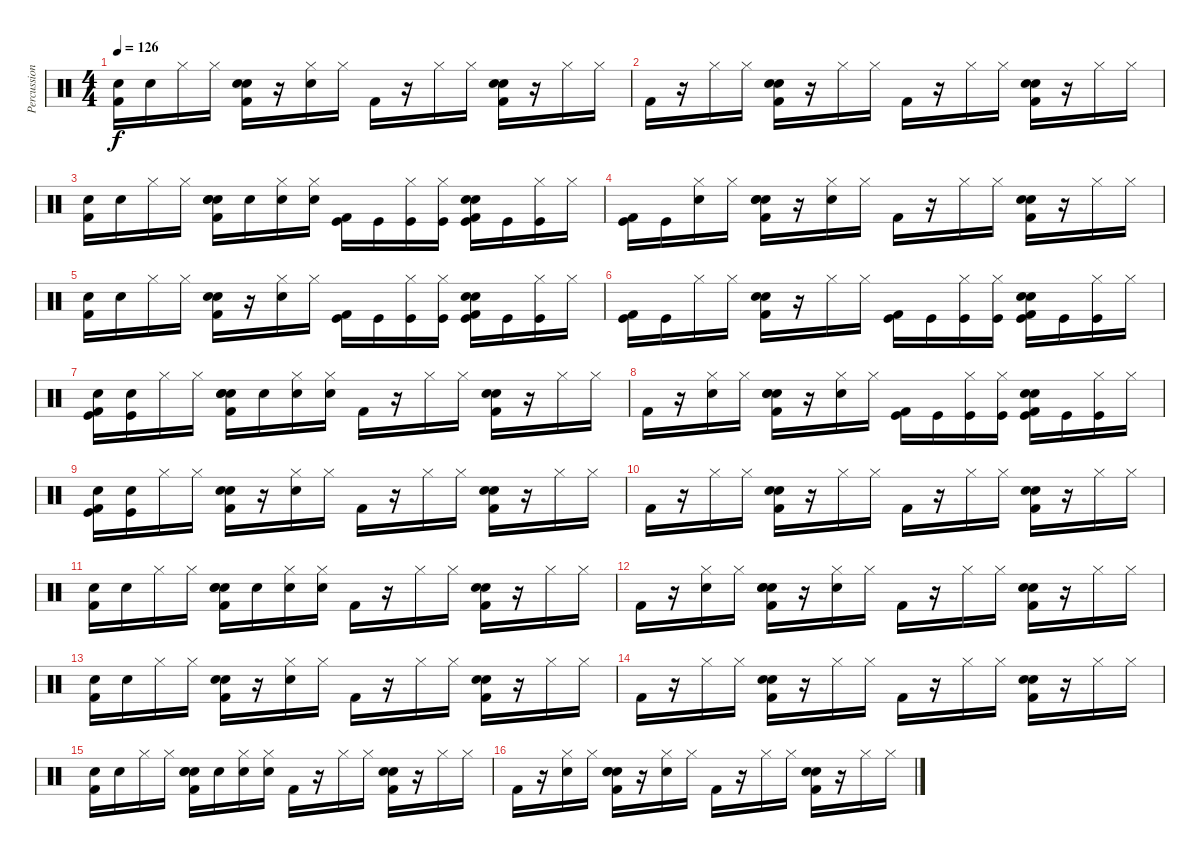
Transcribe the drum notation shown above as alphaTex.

\track ("Percussion" "Percussion") {instrument percussion}
\staff {score}
\articulation defaults
\ts (4 4)
\tempo 126
\clef neutral
\ks c
("Snare (hit) 2" "Kick (hit) 2").16{dy f} "Snare (hit) 2".16 "Hi-Hat (closed)".16 "Hi-Hat (closed)".16 ("Hand Clap (hit)" "Electric Snare (hit)" "Kick (hit) 2").16 r.16 ("Hi-Hat (closed)" "Snare (hit) 2").16 "Hi-Hat (closed)".16 "Kick (hit) 2".16 r.16 "Hi-Hat (closed)".16 "Hi-Hat (closed)".16 ("Hand Clap (hit)" "Electric Snare (hit)" "Kick (hit) 2").16 r.16 "Hi-Hat (closed)".16 "Hi-Hat (closed)".16 |
"Kick (hit) 2".16 r.16 "Hi-Hat (closed)".16 "Hi-Hat (closed)".16 ("Hand Clap (hit)" "Electric Snare (hit)" "Kick (hit) 2").16 r.16 "Hi-Hat (closed)".16 "Hi-Hat (closed)".16 "Kick (hit) 2".16 r.16 "Hi-Hat (closed)".16 "Hi-Hat (closed)".16 ("Hand Clap (hit)" "Electric Snare (hit)" "Kick (hit) 2").16 r.16 "Hi-Hat (closed)".16 "Hi-Hat (closed)".16 |
("Snare (hit) 2" "Kick (hit) 2").16 "Snare (hit) 2".16 "Hi-Hat (closed)".16 "Hi-Hat (closed)".16 ("Snare (hit) 2" "Hand Clap (hit)" "Electric Snare (hit)" "Kick (hit) 2").16 "Snare (hit) 2".16 ("Hi-Hat (closed)" "Snare (hit) 2").16 ("Hi-Hat (closed)" "Snare (hit) 2").16 ("Kick (hit)" "Kick (hit) 2").16 "Kick (hit)".16 ("Hi-Hat (closed)" "Kick (hit)").16 ("Hi-Hat (closed)" "Kick (hit)").16 ("Kick (hit)" "Hand Clap (hit)" "Electric Snare (hit)" "Kick (hit) 2").16 "Kick (hit)".16 ("Hi-Hat (closed)" "Kick (hit)").16 "Hi-Hat (closed)".16 |
("Kick (hit)" "Kick (hit) 2").16 "Kick (hit)".16 ("Hi-Hat (closed)" "Snare (hit) 2").16 "Hi-Hat (closed)".16 ("Snare (hit) 2" "Hand Clap (hit)" "Electric Snare (hit)" "Kick (hit) 2").16 r.16 ("Hi-Hat (closed)" "Snare (hit) 2").16 "Hi-Hat (closed)".16 "Kick (hit) 2".16 r.16 "Hi-Hat (closed)".16 "Hi-Hat (closed)".16 ("Hand Clap (hit)" "Electric Snare (hit)" "Kick (hit) 2").16 r.16 "Hi-Hat (closed)".16 "Hi-Hat (closed)".16 |
("Snare (hit) 2" "Kick (hit) 2").16 "Snare (hit) 2".16 "Hi-Hat (closed)".16 "Hi-Hat (closed)".16 ("Hand Clap (hit)" "Electric Snare (hit)" "Kick (hit) 2").16 r.16 ("Hi-Hat (closed)" "Snare (hit) 2").16 "Hi-Hat (closed)".16 ("Kick (hit)" "Kick (hit) 2").16 "Kick (hit)".16 ("Hi-Hat (closed)" "Kick (hit)").16 ("Hi-Hat (closed)" "Kick (hit)").16 ("Kick (hit)" "Hand Clap (hit)" "Electric Snare (hit)" "Kick (hit) 2").16 "Kick (hit)".16 ("Hi-Hat (closed)" "Kick (hit)").16 "Hi-Hat (closed)".16 |
("Kick (hit)" "Kick (hit) 2").16 "Kick (hit)".16 "Hi-Hat (closed)".16 "Hi-Hat (closed)".16 ("Hand Clap (hit)" "Electric Snare (hit)" "Kick (hit) 2").16 r.16 "Hi-Hat (closed)".16 "Hi-Hat (closed)".16 ("Kick (hit)" "Kick (hit) 2").16 "Kick (hit)".16 ("Hi-Hat (closed)" "Kick (hit)").16 ("Hi-Hat (closed)" "Kick (hit)").16 ("Kick (hit)" "Hand Clap (hit)" "Electric Snare (hit)" "Kick (hit) 2").16 "Kick (hit)".16 ("Hi-Hat (closed)" "Kick (hit)").16 "Hi-Hat (closed)".16 |
("Kick (hit)" "Snare (hit) 2" "Kick (hit) 2").16 ("Kick (hit)" "Snare (hit) 2").16 "Hi-Hat (closed)".16 "Hi-Hat (closed)".16 ("Snare (hit) 2" "Hand Clap (hit)" "Electric Snare (hit)" "Kick (hit) 2").16 "Snare (hit) 2".16 ("Hi-Hat (closed)" "Snare (hit) 2").16 ("Hi-Hat (closed)" "Snare (hit) 2").16 "Kick (hit) 2".16 r.16 "Hi-Hat (closed)".16 "Hi-Hat (closed)".16 ("Hand Clap (hit)" "Electric Snare (hit)" "Kick (hit) 2").16 r.16 "Hi-Hat (closed)".16 "Hi-Hat (closed)".16 |
"Kick (hit) 2".16 r.16 ("Hi-Hat (closed)" "Snare (hit) 2").16 "Hi-Hat (closed)".16 ("Snare (hit) 2" "Hand Clap (hit)" "Electric Snare (hit)" "Kick (hit) 2").16 r.16 ("Hi-Hat (closed)" "Snare (hit) 2").16 "Hi-Hat (closed)".16 ("Kick (hit)" "Kick (hit) 2").16 "Kick (hit)".16 ("Hi-Hat (closed)" "Kick (hit)").16 ("Hi-Hat (closed)" "Kick (hit)").16 ("Kick (hit)" "Hand Clap (hit)" "Electric Snare (hit)" "Kick (hit) 2").16 "Kick (hit)".16 ("Hi-Hat (closed)" "Kick (hit)").16 "Hi-Hat (closed)".16 |
("Kick (hit)" "Snare (hit) 2" "Kick (hit) 2").16 ("Kick (hit)" "Snare (hit) 2").16 "Hi-Hat (closed)".16 "Hi-Hat (closed)".16 ("Hand Clap (hit)" "Electric Snare (hit)" "Kick (hit) 2").16 r.16 ("Hi-Hat (closed)" "Snare (hit) 2").16 "Hi-Hat (closed)".16 "Kick (hit) 2".16 r.16 "Hi-Hat (closed)".16 "Hi-Hat (closed)".16 ("Hand Clap (hit)" "Electric Snare (hit)" "Kick (hit) 2").16 r.16 "Hi-Hat (closed)".16 "Hi-Hat (closed)".16 |
"Kick (hit) 2".16 r.16 "Hi-Hat (closed)".16 "Hi-Hat (closed)".16 ("Hand Clap (hit)" "Electric Snare (hit)" "Kick (hit) 2").16 r.16 "Hi-Hat (closed)".16 "Hi-Hat (closed)".16 "Kick (hit) 2".16 r.16 "Hi-Hat (closed)".16 "Hi-Hat (closed)".16 ("Hand Clap (hit)" "Electric Snare (hit)" "Kick (hit) 2").16 r.16 "Hi-Hat (closed)".16 "Hi-Hat (closed)".16 |
("Snare (hit) 2" "Kick (hit) 2").16 "Snare (hit) 2".16 "Hi-Hat (closed)".16 "Hi-Hat (closed)".16 ("Snare (hit) 2" "Hand Clap (hit)" "Electric Snare (hit)" "Kick (hit) 2").16 "Snare (hit) 2".16 ("Hi-Hat (closed)" "Snare (hit) 2").16 ("Hi-Hat (closed)" "Snare (hit) 2").16 "Kick (hit) 2".16 r.16 "Hi-Hat (closed)".16 "Hi-Hat (closed)".16 ("Hand Clap (hit)" "Electric Snare (hit)" "Kick (hit) 2").16 r.16 "Hi-Hat (closed)".16 "Hi-Hat (closed)".16 |
"Kick (hit) 2".16 r.16 ("Hi-Hat (closed)" "Snare (hit) 2").16 "Hi-Hat (closed)".16 ("Snare (hit) 2" "Hand Clap (hit)" "Electric Snare (hit)" "Kick (hit) 2").16 r.16 ("Hi-Hat (closed)" "Snare (hit) 2").16 "Hi-Hat (closed)".16 "Kick (hit) 2".16 r.16 "Hi-Hat (closed)".16 "Hi-Hat (closed)".16 ("Hand Clap (hit)" "Electric Snare (hit)" "Kick (hit) 2").16 r.16 "Hi-Hat (closed)".16 "Hi-Hat (closed)".16 |
("Snare (hit) 2" "Kick (hit) 2").16 "Snare (hit) 2".16 "Hi-Hat (closed)".16 "Hi-Hat (closed)".16 ("Hand Clap (hit)" "Electric Snare (hit)" "Kick (hit) 2").16 r.16 ("Hi-Hat (closed)" "Snare (hit) 2").16 "Hi-Hat (closed)".16 "Kick (hit) 2".16 r.16 "Hi-Hat (closed)".16 "Hi-Hat (closed)".16 ("Hand Clap (hit)" "Electric Snare (hit)" "Kick (hit) 2").16 r.16 "Hi-Hat (closed)".16 "Hi-Hat (closed)".16 |
"Kick (hit) 2".16 r.16 "Hi-Hat (closed)".16 "Hi-Hat (closed)".16 ("Hand Clap (hit)" "Electric Snare (hit)" "Kick (hit) 2").16 r.16 "Hi-Hat (closed)".16 "Hi-Hat (closed)".16 "Kick (hit) 2".16 r.16 "Hi-Hat (closed)".16 "Hi-Hat (closed)".16 ("Hand Clap (hit)" "Electric Snare (hit)" "Kick (hit) 2").16 r.16 "Hi-Hat (closed)".16 "Hi-Hat (closed)".16 |
("Snare (hit) 2" "Kick (hit) 2").16 "Snare (hit) 2".16 "Hi-Hat (closed)".16 "Hi-Hat (closed)".16 ("Snare (hit) 2" "Hand Clap (hit)" "Electric Snare (hit)" "Kick (hit) 2").16 "Snare (hit) 2".16 ("Hi-Hat (closed)" "Snare (hit) 2").16 ("Hi-Hat (closed)" "Snare (hit) 2").16 "Kick (hit) 2".16 r.16 "Hi-Hat (closed)".16 "Hi-Hat (closed)".16 ("Hand Clap (hit)" "Electric Snare (hit)" "Kick (hit) 2").16 r.16 "Hi-Hat (closed)".16 "Hi-Hat (closed)".16 |
"Kick (hit) 2".16 r.16 ("Hi-Hat (closed)" "Snare (hit) 2").16 "Hi-Hat (closed)".16 ("Snare (hit) 2" "Hand Clap (hit)" "Electric Snare (hit)" "Kick (hit) 2").16 r.16 ("Hi-Hat (closed)" "Snare (hit) 2").16 "Hi-Hat (closed)".16 "Kick (hit) 2".16 r.16 "Hi-Hat (closed)".16 "Hi-Hat (closed)".16 ("Hand Clap (hit)" "Electric Snare (hit)" "Kick (hit) 2").16 r.16 "Hi-Hat (closed)".16 "Hi-Hat (closed)".16
